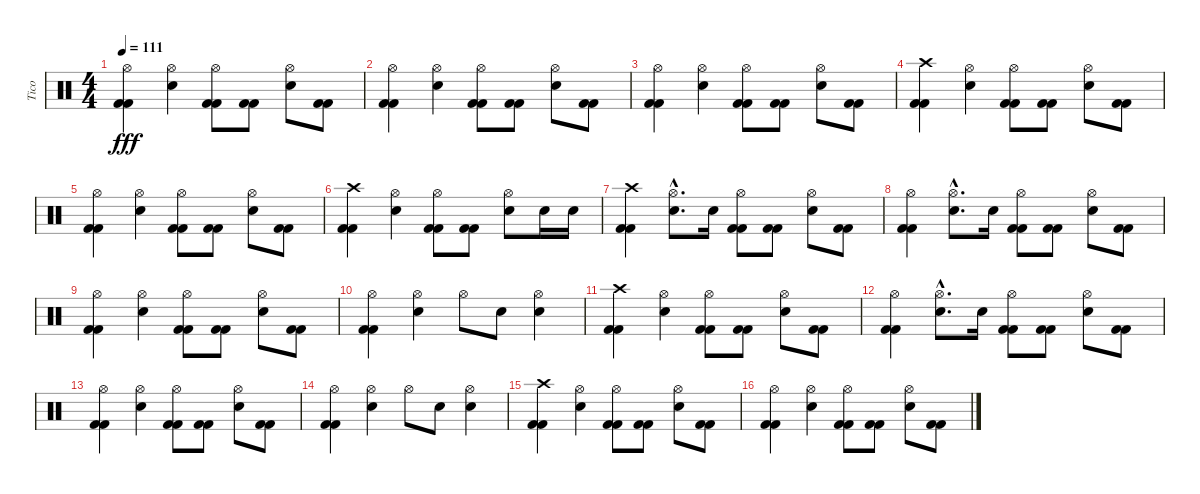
\track ("Tico" "Tico") {instrument percussion}
\staff {score}
\articulation defaults
\ts (4 4)
\tempo 111
\clef neutral
\ks c
("Hi-Hat (open)" "Kick (hit) 2" "Kick (hit) 2").4{dy fff} ("Hi-Hat (open)" "Snare (hit) 2").4 ("Hi-Hat (open)" "Kick (hit) 2" "Kick (hit) 2").8 ("Kick (hit) 2" "Kick (hit) 2").8 ("Hi-Hat (open)" "Snare (hit) 2").8 ("Kick (hit) 2" "Kick (hit) 2").8 |
("Hi-Hat (open)" "Kick (hit) 2" "Kick (hit) 2").4 ("Hi-Hat (open)" "Snare (hit) 2").4 ("Hi-Hat (open)" "Kick (hit) 2" "Kick (hit) 2").8 ("Kick (hit) 2" "Kick (hit) 2").8 ("Hi-Hat (open)" "Snare (hit) 2").8 ("Kick (hit) 2" "Kick (hit) 2").8 |
("Hi-Hat (open)" "Kick (hit) 2" "Kick (hit) 2").4 ("Hi-Hat (open)" "Snare (hit) 2").4 ("Hi-Hat (open)" "Kick (hit) 2" "Kick (hit) 2").8 ("Kick (hit) 2" "Kick (hit) 2").8 ("Hi-Hat (open)" "Snare (hit) 2").8 ("Kick (hit) 2" "Kick (hit) 2").8 |
("Crash high (hit)" "Kick (hit) 2" "Kick (hit) 2").4 ("Hi-Hat (open)" "Snare (hit) 2").4 ("Hi-Hat (open)" "Kick (hit) 2" "Kick (hit) 2").8 ("Kick (hit) 2" "Kick (hit) 2").8 ("Hi-Hat (open)" "Snare (hit) 2").8 ("Kick (hit) 2" "Kick (hit) 2").8 |
("Hi-Hat (open)" "Kick (hit) 2" "Kick (hit) 2").4 ("Hi-Hat (open)" "Snare (hit) 2").4 ("Hi-Hat (open)" "Kick (hit) 2" "Kick (hit) 2").8 ("Kick (hit) 2" "Kick (hit) 2").8 ("Hi-Hat (open)" "Snare (hit) 2").8 ("Kick (hit) 2" "Kick (hit) 2").8 |
("Crash high (hit)" "Kick (hit) 2" "Kick (hit) 2").4 ("Hi-Hat (open)" "Snare (hit) 2").4 ("Hi-Hat (open)" "Kick (hit) 2" "Kick (hit) 2").8 ("Kick (hit) 2" "Kick (hit) 2").8 ("Hi-Hat (open)" "Snare (hit) 2").8 "Snare (hit) 2".16 "Snare (hit) 2".16 |
("Crash high (hit)" "Kick (hit) 2" "Kick (hit) 2").4 ("Hi-Hat (open)"{hac} "Snare (hit) 2"{hac}).8{d} "Snare (hit) 2".16 ("Hi-Hat (open)" "Kick (hit) 2" "Kick (hit) 2").8 ("Kick (hit) 2" "Kick (hit) 2").8 ("Hi-Hat (open)" "Snare (hit) 2").8 ("Kick (hit) 2" "Kick (hit) 2").8 |
("Hi-Hat (open)" "Kick (hit) 2" "Kick (hit) 2").4 ("Hi-Hat (open)"{hac} "Snare (hit) 2"{hac}).8{d} "Snare (hit) 2".16 ("Hi-Hat (open)" "Kick (hit) 2" "Kick (hit) 2").8 ("Kick (hit) 2" "Kick (hit) 2").8 ("Hi-Hat (open)" "Snare (hit) 2").8 ("Kick (hit) 2" "Kick (hit) 2").8 |
("Hi-Hat (open)" "Kick (hit) 2" "Kick (hit) 2").4 ("Hi-Hat (open)" "Snare (hit) 2").4 ("Hi-Hat (open)" "Kick (hit) 2" "Kick (hit) 2").8 ("Kick (hit) 2" "Kick (hit) 2").8 ("Hi-Hat (open)" "Snare (hit) 2").8 ("Kick (hit) 2" "Kick (hit) 2").8 |
("Hi-Hat (open)" "Kick (hit) 2" "Kick (hit) 2").4 ("Hi-Hat (open)" "Snare (hit) 2").4 "Hi-Hat (open)".8 "Snare (hit) 2".8 ("Hi-Hat (open)" "Snare (hit) 2").4 |
("Crash high (hit)" "Kick (hit) 2" "Kick (hit) 2").4 ("Hi-Hat (open)" "Snare (hit) 2").4 ("Hi-Hat (open)" "Kick (hit) 2" "Kick (hit) 2").8 ("Kick (hit) 2" "Kick (hit) 2").8 ("Hi-Hat (open)" "Snare (hit) 2").8 ("Kick (hit) 2" "Kick (hit) 2").8 |
("Hi-Hat (open)" "Kick (hit) 2" "Kick (hit) 2").4 ("Hi-Hat (open)"{hac} "Snare (hit) 2"{hac}).8{d} "Snare (hit) 2".16 ("Hi-Hat (open)" "Kick (hit) 2" "Kick (hit) 2").8 ("Kick (hit) 2" "Kick (hit) 2").8 ("Hi-Hat (open)" "Snare (hit) 2").8 ("Kick (hit) 2" "Kick (hit) 2").8 |
("Hi-Hat (open)" "Kick (hit) 2" "Kick (hit) 2").4 ("Hi-Hat (open)" "Snare (hit) 2").4 ("Hi-Hat (open)" "Kick (hit) 2" "Kick (hit) 2").8 ("Kick (hit) 2" "Kick (hit) 2").8 ("Hi-Hat (open)" "Snare (hit) 2").8 ("Kick (hit) 2" "Kick (hit) 2").8 |
("Hi-Hat (open)" "Kick (hit) 2" "Kick (hit) 2").4 ("Hi-Hat (open)" "Snare (hit) 2").4 "Hi-Hat (open)".8 "Snare (hit) 2".8 ("Hi-Hat (open)" "Snare (hit) 2").4 |
("Crash high (hit)" "Kick (hit) 2" "Kick (hit) 2").4 ("Hi-Hat (open)" "Snare (hit) 2").4 ("Hi-Hat (open)" "Kick (hit) 2" "Kick (hit) 2").8 ("Kick (hit) 2" "Kick (hit) 2").8 ("Hi-Hat (open)" "Snare (hit) 2").8 ("Kick (hit) 2" "Kick (hit) 2").8 |
("Hi-Hat (open)" "Kick (hit) 2" "Kick (hit) 2").4 ("Hi-Hat (open)" "Snare (hit) 2").4 ("Hi-Hat (open)" "Kick (hit) 2" "Kick (hit) 2").8 ("Kick (hit) 2" "Kick (hit) 2").8 ("Hi-Hat (open)" "Snare (hit) 2").8 ("Kick (hit) 2" "Kick (hit) 2").8
